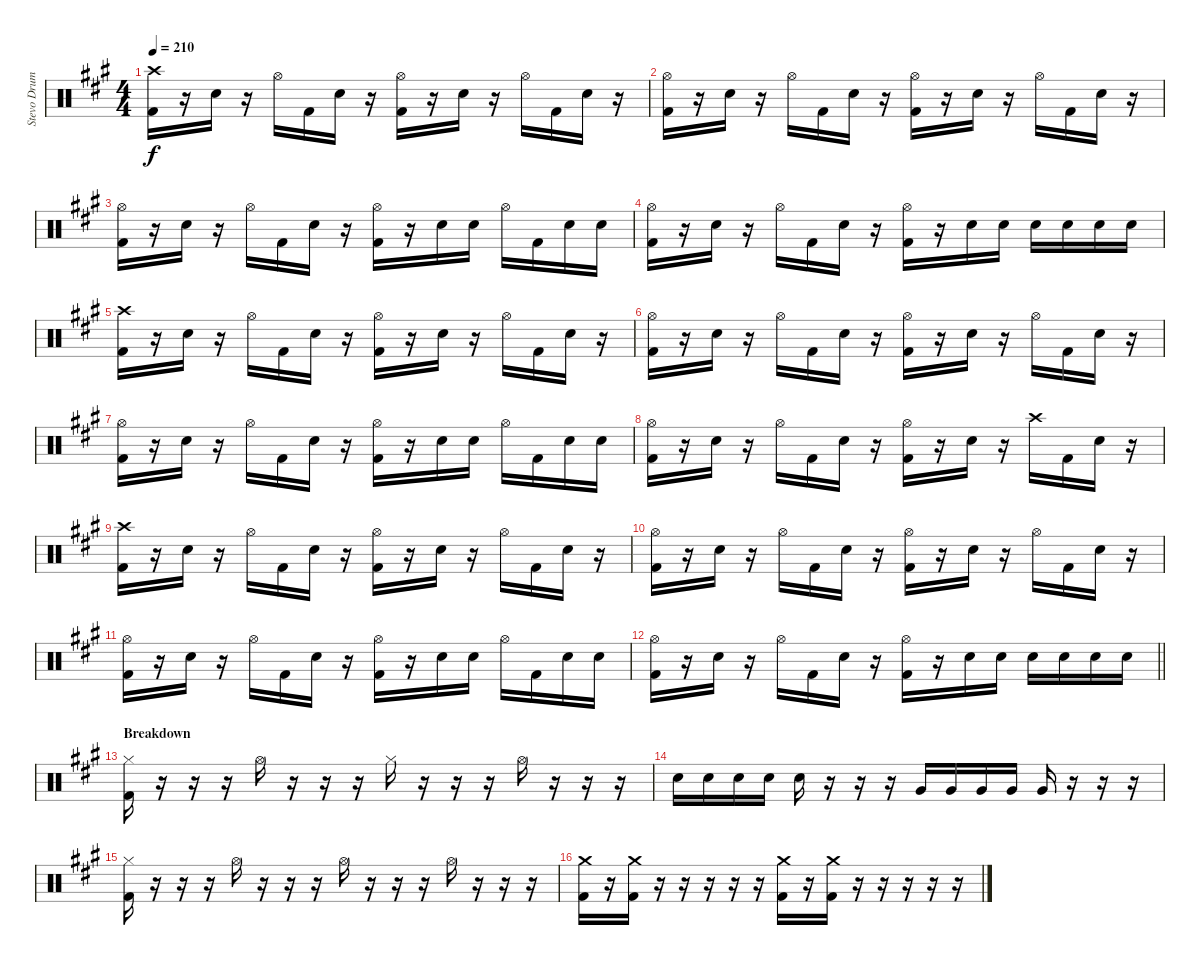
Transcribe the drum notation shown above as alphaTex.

\track ("Stevo Drums" "Stevo Drum") {instrument percussion}
\staff {score}
\articulation defaults
\ts (4 4)
\tempo 210
\clef neutral
\ks a
("Crash high (hit)" "Kick (hit) 2").16{dy f} r.16 "Snare (hit) 2".16 r.16 "Hi-Hat (open)".16 "Kick (hit) 2".16 "Snare (hit) 2".16 r.16 ("Hi-Hat (open)" "Kick (hit) 2").16 r.16 "Snare (hit) 2".16 r.16 "Hi-Hat (open)".16 "Kick (hit) 2".16 "Snare (hit) 2".16 r.16 |
("Hi-Hat (open)" "Kick (hit) 2").16 r.16 "Snare (hit) 2".16 r.16 "Hi-Hat (open)".16 "Kick (hit) 2".16 "Snare (hit) 2".16 r.16 ("Hi-Hat (open)" "Kick (hit) 2").16 r.16 "Snare (hit) 2".16 r.16 "Hi-Hat (open)".16 "Kick (hit) 2".16 "Snare (hit) 2".16 r.16 |
("Hi-Hat (open)" "Kick (hit) 2").16 r.16 "Snare (hit) 2".16 r.16 "Hi-Hat (open)".16 "Kick (hit) 2".16 "Snare (hit) 2".16 r.16 ("Hi-Hat (open)" "Kick (hit) 2").16 r.16 "Snare (hit) 2".16 "Snare (hit) 2".16 "Hi-Hat (open)".16 "Kick (hit) 2".16 "Snare (hit) 2".16 "Snare (hit) 2".16 |
("Hi-Hat (open)" "Kick (hit) 2").16 r.16 "Snare (hit) 2".16 r.16 "Hi-Hat (open)".16 "Kick (hit) 2".16 "Snare (hit) 2".16 r.16 ("Hi-Hat (open)" "Kick (hit) 2").16 r.16 "Snare (hit) 2".16 "Snare (hit) 2".16 "Snare (hit) 2".16 "Snare (hit) 2".16 "Snare (hit) 2".16 "Snare (hit) 2".16 |
("Crash high (hit)" "Kick (hit) 2").16 r.16 "Snare (hit) 2".16 r.16 "Hi-Hat (open)".16 "Kick (hit) 2".16 "Snare (hit) 2".16 r.16 ("Hi-Hat (open)" "Kick (hit) 2").16 r.16 "Snare (hit) 2".16 r.16 "Hi-Hat (open)".16 "Kick (hit) 2".16 "Snare (hit) 2".16 r.16 |
("Hi-Hat (open)" "Kick (hit) 2").16 r.16 "Snare (hit) 2".16 r.16 "Hi-Hat (open)".16 "Kick (hit) 2".16 "Snare (hit) 2".16 r.16 ("Hi-Hat (open)" "Kick (hit) 2").16 r.16 "Snare (hit) 2".16 r.16 "Hi-Hat (open)".16 "Kick (hit) 2".16 "Snare (hit) 2".16 r.16 |
("Hi-Hat (open)" "Kick (hit) 2").16 r.16 "Snare (hit) 2".16 r.16 "Hi-Hat (open)".16 "Kick (hit) 2".16 "Snare (hit) 2".16 r.16 ("Hi-Hat (open)" "Kick (hit) 2").16 r.16 "Snare (hit) 2".16 "Snare (hit) 2".16 "Hi-Hat (open)".16 "Kick (hit) 2".16 "Snare (hit) 2".16 "Snare (hit) 2".16 |
("Hi-Hat (open)" "Kick (hit) 2").16 r.16 "Snare (hit) 2".16 r.16 "Hi-Hat (open)".16 "Kick (hit) 2".16 "Snare (hit) 2".16 r.16 ("Hi-Hat (open)" "Kick (hit) 2").16 r.16 "Snare (hit) 2".16 r.16 "Crash high (hit)".16 "Kick (hit) 2".16 "Snare (hit) 2".16 r.16 |
("Crash high (hit)" "Kick (hit) 2").16 r.16 "Snare (hit) 2".16 r.16 "Hi-Hat (open)".16 "Kick (hit) 2".16 "Snare (hit) 2".16 r.16 ("Hi-Hat (open)" "Kick (hit) 2").16 r.16 "Snare (hit) 2".16 r.16 "Hi-Hat (open)".16 "Kick (hit) 2".16 "Snare (hit) 2".16 r.16 |
("Hi-Hat (open)" "Kick (hit) 2").16 r.16 "Snare (hit) 2".16 r.16 "Hi-Hat (open)".16 "Kick (hit) 2".16 "Snare (hit) 2".16 r.16 ("Hi-Hat (open)" "Kick (hit) 2").16 r.16 "Snare (hit) 2".16 r.16 "Hi-Hat (open)".16 "Kick (hit) 2".16 "Snare (hit) 2".16 r.16 |
("Hi-Hat (open)" "Kick (hit) 2").16 r.16 "Snare (hit) 2".16 r.16 "Hi-Hat (open)".16 "Kick (hit) 2".16 "Snare (hit) 2".16 r.16 ("Hi-Hat (open)" "Kick (hit) 2").16 r.16 "Snare (hit) 2".16 "Snare (hit) 2".16 "Hi-Hat (open)".16 "Kick (hit) 2".16 "Snare (hit) 2".16 "Snare (hit) 2".16 |
\barLineRight lightlight
("Hi-Hat (open)" "Kick (hit) 2").16 r.16 "Snare (hit) 2".16 r.16 "Hi-Hat (open)".16 "Kick (hit) 2".16 "Snare (hit) 2".16 r.16 ("Hi-Hat (open)" "Kick (hit) 2").16 r.16 "Snare (hit) 2".16 "Snare (hit) 2".16 "Snare (hit) 2".16 "Snare (hit) 2".16 "Snare (hit) 2".16 "Snare (hit) 2".16 |
\section ("" "Breakdown")
("Hi-Hat (closed)" "Kick (hit) 2").16 r.16 r.16 r.16 "Hi-Hat (open)".16 r.16 r.16 r.16 "Hi-Hat (closed)".16 r.16 r.16 r.16 "Hi-Hat (open)".16 r.16 r.16 r.16 |
"Snare (hit) 2".16 "Snare (hit) 2".16 "Snare (hit) 2".16 "Snare (hit) 2".16 "Snare (hit) 2".16 r.16 r.16 r.16 "Very Low Tom (hit)".16 "Very Low Tom (hit)".16 "Very Low Tom (hit)".16 "Very Low Tom (hit)".16 "Very Low Tom (hit)".16 r.16 r.16 r.16 |
("Hi-Hat (closed)" "Kick (hit) 2").16 r.16 r.16 r.16 "Hi-Hat (open)".16 r.16 r.16 r.16 "Hi-Hat (open)".16 r.16 r.16 r.16 "Hi-Hat (open)".16 r.16 r.16 r.16 |
("Crash medium (hit)" "Kick (hit) 2").16 r.16 ("Crash medium (hit)" "Kick (hit) 2").16 r.16 r.16 r.16 r.16 r.16 ("Crash medium (hit)" "Kick (hit) 2").16 r.16 ("Crash medium (hit)" "Kick (hit) 2").16 r.16 r.16 r.16 r.16 r.16
